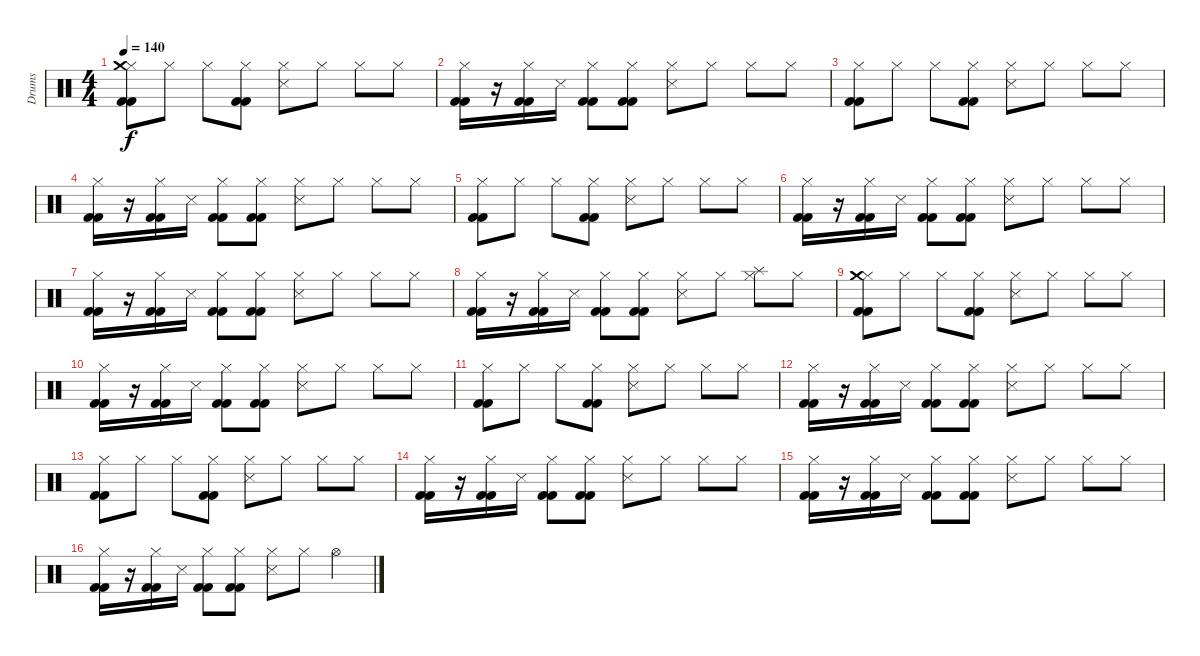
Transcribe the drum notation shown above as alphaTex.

\track ("Drums" "Drums") {instrument percussion}
\staff {score}
\articulation defaults
\ts (4 4)
\tempo 140
\clef neutral
\ks c
("Hi-Hat (closed)" "Kick (hit) 2" "Crash medium (hit)" "Kick (hit) 2").8{dy f} "Hi-Hat (closed)".8 "Hi-Hat (closed)".8 ("Hi-Hat (closed)" "Kick (hit) 2" "Kick (hit) 2").8 ("Hi-Hat (closed)" "Snare (side stick) 3").8 "Hi-Hat (closed)".8 "Hi-Hat (closed)".8 "Hi-Hat (closed)".8 |
("Kick (hit) 2" "Hi-Hat (closed)" "Kick (hit) 2").16 r.16 ("Kick (hit) 2" "Kick (hit) 2" "Hi-Hat (closed)").16 "Snare (side stick) 3".16 ("Kick (hit) 2" "Kick (hit) 2" "Hi-Hat (closed)").8 ("Kick (hit) 2" "Kick (hit) 2" "Hi-Hat (closed)").8 ("Snare (side stick) 3" "Hi-Hat (closed)").8 "Hi-Hat (closed)".8 "Hi-Hat (closed)".8 "Hi-Hat (closed)".8 |
("Hi-Hat (closed)" "Kick (hit) 2" "Kick (hit) 2").8 "Hi-Hat (closed)".8 "Hi-Hat (closed)".8 ("Hi-Hat (closed)" "Kick (hit) 2" "Kick (hit) 2").8 ("Hi-Hat (closed)" "Snare (side stick) 3").8 "Hi-Hat (closed)".8 "Hi-Hat (closed)".8 "Hi-Hat (closed)".8 |
("Kick (hit) 2" "Hi-Hat (closed)" "Kick (hit) 2").16 r.16 ("Kick (hit) 2" "Kick (hit) 2" "Hi-Hat (closed)").16 "Snare (side stick) 3".16 ("Kick (hit) 2" "Kick (hit) 2" "Hi-Hat (closed)").8 ("Kick (hit) 2" "Kick (hit) 2" "Hi-Hat (closed)").8 ("Snare (side stick) 3" "Hi-Hat (closed)").8 "Hi-Hat (closed)".8 "Hi-Hat (closed)".8 "Hi-Hat (closed)".8 |
("Hi-Hat (closed)" "Kick (hit) 2" "Kick (hit) 2").8 "Hi-Hat (closed)".8 "Hi-Hat (closed)".8 ("Hi-Hat (closed)" "Kick (hit) 2" "Kick (hit) 2").8 ("Hi-Hat (closed)" "Snare (side stick) 3").8 "Hi-Hat (closed)".8 "Hi-Hat (closed)".8 "Hi-Hat (closed)".8 |
("Kick (hit) 2" "Hi-Hat (closed)" "Kick (hit) 2").16 r.16 ("Kick (hit) 2" "Kick (hit) 2" "Hi-Hat (closed)").16 "Snare (side stick) 3".16 ("Kick (hit) 2" "Kick (hit) 2" "Hi-Hat (closed)").8 ("Kick (hit) 2" "Kick (hit) 2" "Hi-Hat (closed)").8 ("Snare (side stick) 3" "Hi-Hat (closed)").8 "Hi-Hat (closed)".8 "Hi-Hat (closed)".8 "Hi-Hat (closed)".8 |
("Kick (hit) 2" "Hi-Hat (closed)" "Kick (hit) 2").16 r.16 ("Kick (hit) 2" "Kick (hit) 2" "Hi-Hat (closed)").16 "Snare (side stick) 3".16 ("Kick (hit) 2" "Kick (hit) 2" "Hi-Hat (closed)").8 ("Kick (hit) 2" "Kick (hit) 2" "Hi-Hat (closed)").8 ("Snare (side stick) 3" "Hi-Hat (closed)").8 "Hi-Hat (closed)".8 "Hi-Hat (closed)".8 "Hi-Hat (closed)".8 |
("Kick (hit) 2" "Hi-Hat (closed)" "Kick (hit) 2").16 r.16 ("Kick (hit) 2" "Kick (hit) 2" "Hi-Hat (closed)").16 "Snare (side stick) 3".16 ("Kick (hit) 2" "Kick (hit) 2" "Hi-Hat (closed)").8 ("Kick (hit) 2" "Kick (hit) 2" "Hi-Hat (closed)").8 ("Snare (side stick) 3" "Hi-Hat (closed)").8 "Hi-Hat (closed)".8 ("Hi-Hat (closed)" "Splash (hit)").8 "Hi-Hat (closed)".8 |
("Hi-Hat (closed)" "Kick (hit) 2" "Crash medium (hit)" "Kick (hit) 2").8 "Hi-Hat (closed)".8 "Hi-Hat (closed)".8 ("Hi-Hat (closed)" "Kick (hit) 2" "Kick (hit) 2").8 ("Hi-Hat (closed)" "Snare (side stick) 3").8 "Hi-Hat (closed)".8 "Hi-Hat (closed)".8 "Hi-Hat (closed)".8 |
("Kick (hit) 2" "Hi-Hat (closed)" "Kick (hit) 2").16 r.16 ("Kick (hit) 2" "Kick (hit) 2" "Hi-Hat (closed)").16 "Snare (side stick) 3".16 ("Kick (hit) 2" "Kick (hit) 2" "Hi-Hat (closed)").8 ("Kick (hit) 2" "Kick (hit) 2" "Hi-Hat (closed)").8 ("Snare (side stick) 3" "Hi-Hat (closed)").8 "Hi-Hat (closed)".8 "Hi-Hat (closed)".8 "Hi-Hat (closed)".8 |
("Hi-Hat (closed)" "Kick (hit) 2" "Kick (hit) 2").8 "Hi-Hat (closed)".8 "Hi-Hat (closed)".8 ("Hi-Hat (closed)" "Kick (hit) 2" "Kick (hit) 2").8 ("Hi-Hat (closed)" "Snare (side stick) 3").8 "Hi-Hat (closed)".8 "Hi-Hat (closed)".8 "Hi-Hat (closed)".8 |
("Kick (hit) 2" "Hi-Hat (closed)" "Kick (hit) 2").16 r.16 ("Kick (hit) 2" "Kick (hit) 2" "Hi-Hat (closed)").16 "Snare (side stick) 3".16 ("Kick (hit) 2" "Kick (hit) 2" "Hi-Hat (closed)").8 ("Kick (hit) 2" "Kick (hit) 2" "Hi-Hat (closed)").8 ("Snare (side stick) 3" "Hi-Hat (closed)").8 "Hi-Hat (closed)".8 "Hi-Hat (closed)".8 "Hi-Hat (closed)".8 |
("Hi-Hat (closed)" "Kick (hit) 2" "Kick (hit) 2").8 "Hi-Hat (closed)".8 "Hi-Hat (closed)".8 ("Hi-Hat (closed)" "Kick (hit) 2" "Kick (hit) 2").8 ("Hi-Hat (closed)" "Snare (side stick) 3").8 "Hi-Hat (closed)".8 "Hi-Hat (closed)".8 "Hi-Hat (closed)".8 |
("Kick (hit) 2" "Hi-Hat (closed)" "Kick (hit) 2").16 r.16 ("Kick (hit) 2" "Kick (hit) 2" "Hi-Hat (closed)").16 "Snare (side stick) 3".16 ("Kick (hit) 2" "Kick (hit) 2" "Hi-Hat (closed)").8 ("Kick (hit) 2" "Kick (hit) 2" "Hi-Hat (closed)").8 ("Snare (side stick) 3" "Hi-Hat (closed)").8 "Hi-Hat (closed)".8 "Hi-Hat (closed)".8 "Hi-Hat (closed)".8 |
("Kick (hit) 2" "Hi-Hat (closed)" "Kick (hit) 2").16 r.16 ("Kick (hit) 2" "Kick (hit) 2" "Hi-Hat (closed)").16 "Snare (side stick) 3".16 ("Kick (hit) 2" "Kick (hit) 2" "Hi-Hat (closed)").8 ("Kick (hit) 2" "Kick (hit) 2" "Hi-Hat (closed)").8 ("Snare (side stick) 3" "Hi-Hat (closed)").8 "Hi-Hat (closed)".8 "Hi-Hat (closed)".8 "Hi-Hat (closed)".8 |
("Kick (hit) 2" "Hi-Hat (closed)" "Kick (hit) 2").16 r.16 ("Kick (hit) 2" "Kick (hit) 2" "Hi-Hat (closed)").16 "Snare (side stick) 3".16 ("Kick (hit) 2" "Kick (hit) 2" "Hi-Hat (closed)").8 ("Kick (hit) 2" "Kick (hit) 2" "Hi-Hat (closed)").8 ("Snare (side stick) 3" "Hi-Hat (closed)").8 "Hi-Hat (closed)".8 "Hi-Hat (open)".4
